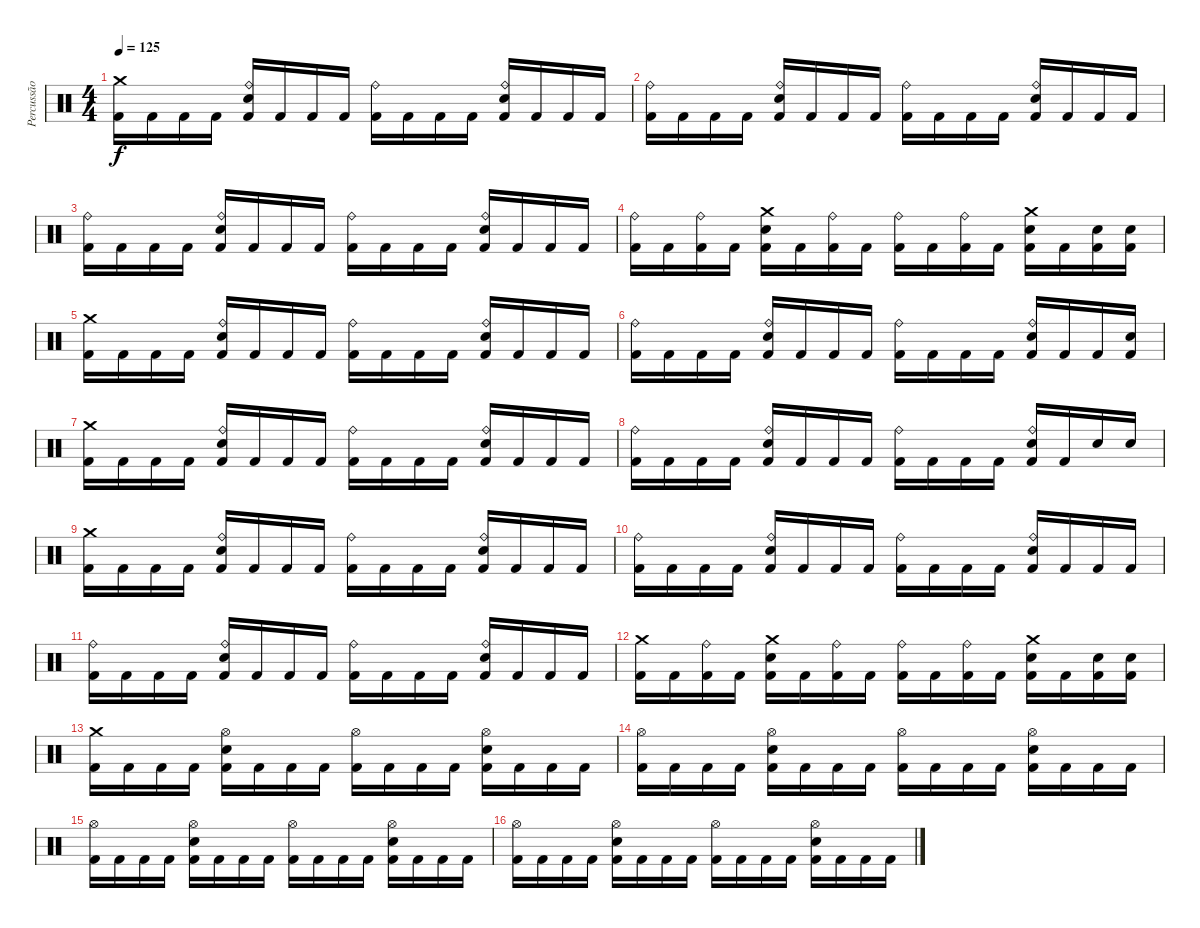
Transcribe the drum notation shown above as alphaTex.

\track ("Percussão" "Percussão") {instrument percussion}
\staff {score}
\articulation defaults
\ts (4 4)
\tempo 125
\clef neutral
\ks c
("Crash medium (hit)" "Kick (hit) 2").16{dy f} "Kick (hit) 2".16 "Kick (hit) 2".16 "Kick (hit) 2".16 ("Ride (bell)" "Electric Snare (hit)" "Kick (hit) 2").16 "Kick (hit) 2".16 "Kick (hit) 2".16 "Kick (hit) 2".16 ("Ride (bell)" "Kick (hit) 2").16 "Kick (hit) 2".16 "Kick (hit) 2".16 "Kick (hit) 2".16 ("Ride (bell)" "Electric Snare (hit)" "Kick (hit) 2").16 "Kick (hit) 2".16 "Kick (hit) 2".16 "Kick (hit) 2".16 |
("Ride (bell)" "Kick (hit) 2").16 "Kick (hit) 2".16 "Kick (hit) 2".16 "Kick (hit) 2".16 ("Ride (bell)" "Electric Snare (hit)" "Kick (hit) 2").16 "Kick (hit) 2".16 "Kick (hit) 2".16 "Kick (hit) 2".16 ("Ride (bell)" "Kick (hit) 2").16 "Kick (hit) 2".16 "Kick (hit) 2".16 "Kick (hit) 2".16 ("Ride (bell)" "Electric Snare (hit)" "Kick (hit) 2").16 "Kick (hit) 2".16 "Kick (hit) 2".16 "Kick (hit) 2".16 |
("Ride (bell)" "Kick (hit) 2").16 "Kick (hit) 2".16 "Kick (hit) 2".16 "Kick (hit) 2".16 ("Ride (bell)" "Electric Snare (hit)" "Kick (hit) 2").16 "Kick (hit) 2".16 "Kick (hit) 2".16 "Kick (hit) 2".16 ("Ride (bell)" "Kick (hit) 2").16 "Kick (hit) 2".16 "Kick (hit) 2".16 "Kick (hit) 2".16 ("Ride (bell)" "Electric Snare (hit)" "Kick (hit) 2").16 "Kick (hit) 2".16 "Kick (hit) 2".16 "Kick (hit) 2".16 |
("Ride (bell)" "Kick (hit) 2").16 "Kick (hit) 2".16 ("Ride (bell)" "Kick (hit) 2").16 "Kick (hit) 2".16 ("Crash medium (hit)" "Electric Snare (hit)" "Kick (hit) 2").16 "Kick (hit) 2".16 ("Ride (bell)" "Kick (hit) 2").16 "Kick (hit) 2".16 ("Ride (bell)" "Kick (hit) 2").16 "Kick (hit) 2".16 ("Ride (bell)" "Kick (hit) 2").16 "Kick (hit) 2".16 ("Crash medium (hit)" "Electric Snare (hit)" "Kick (hit) 2").16 "Kick (hit) 2".16 ("Electric Snare (hit)" "Kick (hit) 2").16 ("Electric Snare (hit)" "Kick (hit) 2").16 |
("Crash medium (hit)" "Kick (hit) 2").16 "Kick (hit) 2".16 "Kick (hit) 2".16 "Kick (hit) 2".16 ("Ride (bell)" "Electric Snare (hit)" "Kick (hit) 2").16 "Kick (hit) 2".16 "Kick (hit) 2".16 "Kick (hit) 2".16 ("Ride (bell)" "Kick (hit) 2").16 "Kick (hit) 2".16 "Kick (hit) 2".16 "Kick (hit) 2".16 ("Ride (bell)" "Electric Snare (hit)" "Kick (hit) 2").16 "Kick (hit) 2".16 "Kick (hit) 2".16 "Kick (hit) 2".16 |
("Ride (bell)" "Kick (hit) 2").16 "Kick (hit) 2".16 "Kick (hit) 2".16 "Kick (hit) 2".16 ("Ride (bell)" "Electric Snare (hit)" "Kick (hit) 2").16 "Kick (hit) 2".16 "Kick (hit) 2".16 "Kick (hit) 2".16 ("Ride (bell)" "Kick (hit) 2").16 "Kick (hit) 2".16 "Kick (hit) 2".16 "Kick (hit) 2".16 ("Ride (bell)" "Electric Snare (hit)" "Kick (hit) 2").16 "Kick (hit) 2".16 "Kick (hit) 2".16 ("Electric Snare (hit)" "Kick (hit) 2").16 |
("Crash medium (hit)" "Kick (hit) 2").16 "Kick (hit) 2".16 "Kick (hit) 2".16 "Kick (hit) 2".16 ("Ride (bell)" "Electric Snare (hit)" "Kick (hit) 2").16 "Kick (hit) 2".16 "Kick (hit) 2".16 "Kick (hit) 2".16 ("Ride (bell)" "Kick (hit) 2").16 "Kick (hit) 2".16 "Kick (hit) 2".16 "Kick (hit) 2".16 ("Ride (bell)" "Electric Snare (hit)" "Kick (hit) 2").16 "Kick (hit) 2".16 "Kick (hit) 2".16 "Kick (hit) 2".16 |
("Ride (bell)" "Kick (hit) 2").16 "Kick (hit) 2".16 "Kick (hit) 2".16 "Kick (hit) 2".16 ("Ride (bell)" "Electric Snare (hit)" "Kick (hit) 2").16 "Kick (hit) 2".16 "Kick (hit) 2".16 "Kick (hit) 2".16 ("Ride (bell)" "Kick (hit) 2").16 "Kick (hit) 2".16 "Kick (hit) 2".16 "Kick (hit) 2".16 ("Ride (bell)" "Electric Snare (hit)" "Kick (hit) 2").16 "Kick (hit) 2".16 "Electric Snare (hit)".16 "Electric Snare (hit)".16 |
("Crash medium (hit)" "Kick (hit) 2").16 "Kick (hit) 2".16 "Kick (hit) 2".16 "Kick (hit) 2".16 ("Ride (bell)" "Electric Snare (hit)" "Kick (hit) 2").16 "Kick (hit) 2".16 "Kick (hit) 2".16 "Kick (hit) 2".16 ("Ride (bell)" "Kick (hit) 2").16 "Kick (hit) 2".16 "Kick (hit) 2".16 "Kick (hit) 2".16 ("Ride (bell)" "Electric Snare (hit)" "Kick (hit) 2").16 "Kick (hit) 2".16 "Kick (hit) 2".16 "Kick (hit) 2".16 |
("Ride (bell)" "Kick (hit) 2").16 "Kick (hit) 2".16 "Kick (hit) 2".16 "Kick (hit) 2".16 ("Ride (bell)" "Electric Snare (hit)" "Kick (hit) 2").16 "Kick (hit) 2".16 "Kick (hit) 2".16 "Kick (hit) 2".16 ("Ride (bell)" "Kick (hit) 2").16 "Kick (hit) 2".16 "Kick (hit) 2".16 "Kick (hit) 2".16 ("Ride (bell)" "Electric Snare (hit)" "Kick (hit) 2").16 "Kick (hit) 2".16 "Kick (hit) 2".16 "Kick (hit) 2".16 |
("Ride (bell)" "Kick (hit) 2").16 "Kick (hit) 2".16 "Kick (hit) 2".16 "Kick (hit) 2".16 ("Ride (bell)" "Electric Snare (hit)" "Kick (hit) 2").16 "Kick (hit) 2".16 "Kick (hit) 2".16 "Kick (hit) 2".16 ("Ride (bell)" "Kick (hit) 2").16 "Kick (hit) 2".16 "Kick (hit) 2".16 "Kick (hit) 2".16 ("Ride (bell)" "Electric Snare (hit)" "Kick (hit) 2").16 "Kick (hit) 2".16 "Kick (hit) 2".16 "Kick (hit) 2".16 |
("Crash medium (hit)" "Kick (hit) 2").16 "Kick (hit) 2".16 ("Ride (bell)" "Kick (hit) 2").16 "Kick (hit) 2".16 ("Crash medium (hit)" "Electric Snare (hit)" "Kick (hit) 2").16 "Kick (hit) 2".16 ("Ride (bell)" "Kick (hit) 2").16 "Kick (hit) 2".16 ("Ride (bell)" "Kick (hit) 2").16 "Kick (hit) 2".16 ("Ride (bell)" "Kick (hit) 2").16 "Kick (hit) 2".16 ("Crash medium (hit)" "Electric Snare (hit)" "Kick (hit) 2").16 "Kick (hit) 2".16 ("Snare (hit)" "Kick (hit) 2").16 ("Electric Snare (hit)" "Kick (hit) 2").16 |
("Crash medium (hit)" "Kick (hit) 2").16 "Kick (hit) 2".16 "Kick (hit) 2".16 "Kick (hit) 2".16 ("Hi-Hat (open)" "Electric Snare (hit)" "Kick (hit) 2").16 "Kick (hit) 2".16 "Kick (hit) 2".16 "Kick (hit) 2".16 ("Hi-Hat (open)" "Kick (hit) 2").16 "Kick (hit) 2".16 "Kick (hit) 2".16 "Kick (hit) 2".16 ("Hi-Hat (open)" "Electric Snare (hit)" "Kick (hit) 2").16 "Kick (hit) 2".16 "Kick (hit) 2".16 "Kick (hit) 2".16 |
("Hi-Hat (open)" "Kick (hit) 2").16 "Kick (hit) 2".16 "Kick (hit) 2".16 "Kick (hit) 2".16 ("Hi-Hat (open)" "Electric Snare (hit)" "Kick (hit) 2").16 "Kick (hit) 2".16 "Kick (hit) 2".16 "Kick (hit) 2".16 ("Hi-Hat (open)" "Kick (hit) 2").16 "Kick (hit) 2".16 "Kick (hit) 2".16 "Kick (hit) 2".16 ("Hi-Hat (open)" "Electric Snare (hit)" "Kick (hit) 2").16 "Kick (hit) 2".16 "Kick (hit) 2".16 "Kick (hit) 2".16 |
("Hi-Hat (open)" "Kick (hit) 2").16 "Kick (hit) 2".16 "Kick (hit) 2".16 "Kick (hit) 2".16 ("Hi-Hat (open)" "Electric Snare (hit)" "Kick (hit) 2").16 "Kick (hit) 2".16 "Kick (hit) 2".16 "Kick (hit) 2".16 ("Hi-Hat (open)" "Kick (hit) 2").16 "Kick (hit) 2".16 "Kick (hit) 2".16 "Kick (hit) 2".16 ("Hi-Hat (open)" "Electric Snare (hit)" "Kick (hit) 2").16 "Kick (hit) 2".16 "Kick (hit) 2".16 "Kick (hit) 2".16 |
("Hi-Hat (open)" "Kick (hit) 2").16 "Kick (hit) 2".16 "Kick (hit) 2".16 "Kick (hit) 2".16 ("Hi-Hat (open)" "Electric Snare (hit)" "Kick (hit) 2").16 "Kick (hit) 2".16 "Kick (hit) 2".16 "Kick (hit) 2".16 ("Hi-Hat (open)" "Kick (hit) 2").16 "Kick (hit) 2".16 "Kick (hit) 2".16 "Kick (hit) 2".16 ("Hi-Hat (open)" "Electric Snare (hit)" "Kick (hit) 2").16 "Kick (hit) 2".16 "Kick (hit) 2".16 "Kick (hit) 2".16
